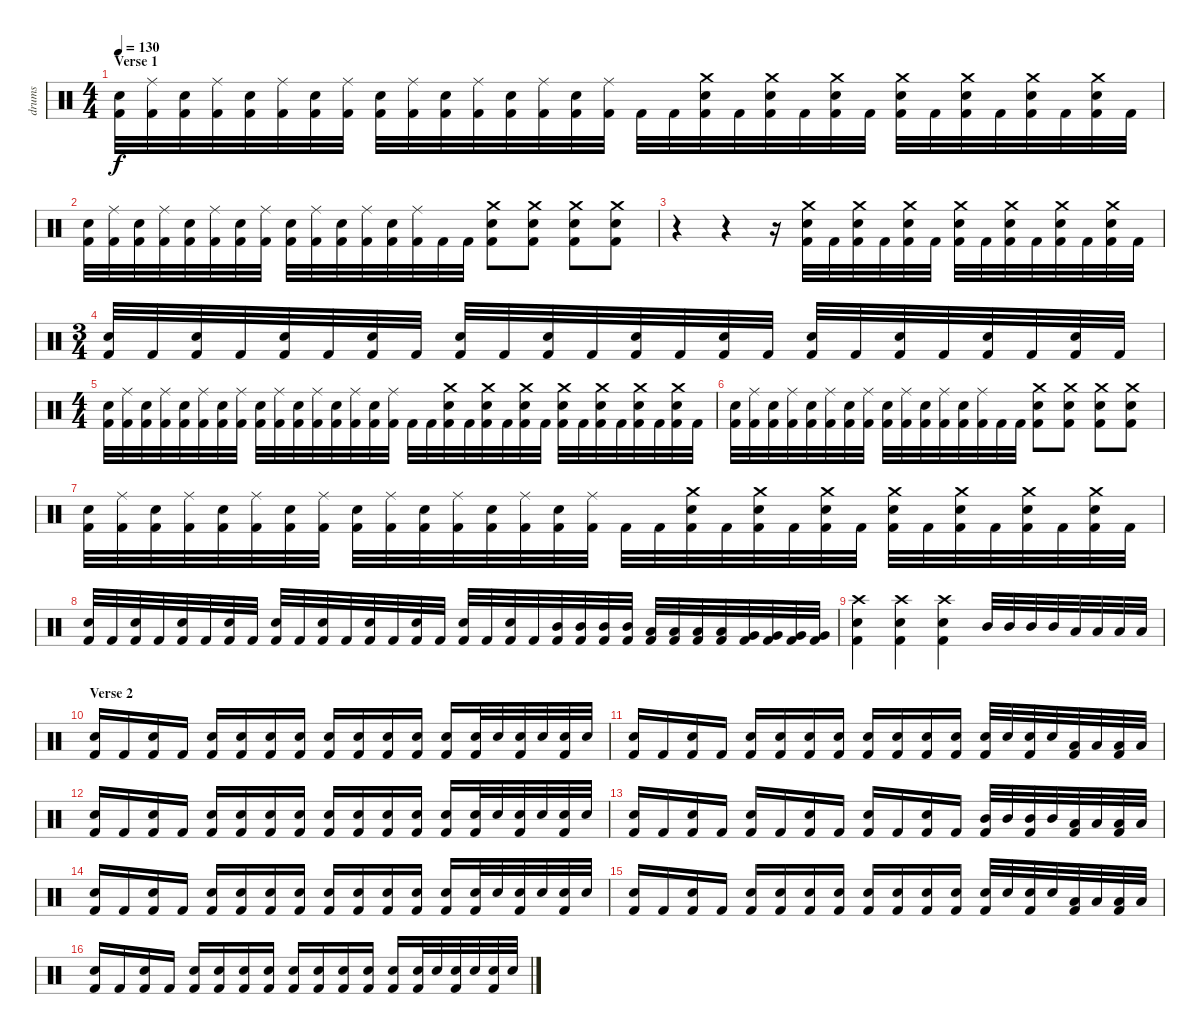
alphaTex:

\track ("drums" "drums") {instrument percussion}
\staff {score}
\articulation defaults
\ts (4 4)
\section ("" "Verse 1")
\tempo 130
\clef neutral
\ks c
("Electric Snare (hit)" "Kick (hit) 2").32{dy f} ("Ride (middle)" "Kick (hit) 2").32 ("Electric Snare (hit)" "Kick (hit) 2").32 ("Ride (middle)" "Kick (hit) 2").32 ("Electric Snare (hit)" "Kick (hit) 2").32 ("Ride (middle)" "Kick (hit) 2").32 ("Electric Snare (hit)" "Kick (hit) 2").32 ("Ride (middle)" "Kick (hit) 2").32 ("Electric Snare (hit)" "Kick (hit) 2").32 ("Ride (middle)" "Kick (hit) 2").32 ("Electric Snare (hit)" "Kick (hit) 2").32 ("Ride (middle)" "Kick (hit) 2").32 ("Electric Snare (hit)" "Kick (hit) 2").32 ("Ride (middle)" "Kick (hit) 2").32 ("Electric Snare (hit)" "Kick (hit) 2").32 ("Ride (middle)" "Kick (hit) 2").32 "Kick (hit) 2".32 "Kick (hit) 2".32 ("Crash medium (hit)" "Electric Snare (hit)" "Kick (hit) 2").32 "Kick (hit) 2".32 ("Crash medium (hit)" "Electric Snare (hit)" "Kick (hit) 2").32 "Kick (hit) 2".32 ("Crash medium (hit)" "Electric Snare (hit)" "Kick (hit) 2").32 "Kick (hit) 2".32 ("Crash medium (hit)" "Electric Snare (hit)" "Kick (hit) 2").32 "Kick (hit) 2".32 ("Crash medium (hit)" "Electric Snare (hit)" "Kick (hit) 2").32 "Kick (hit) 2".32 ("Crash medium (hit)" "Electric Snare (hit)" "Kick (hit) 2").32 "Kick (hit) 2".32 ("Crash medium (hit)" "Electric Snare (hit)" "Kick (hit) 2").32 "Kick (hit) 2".32 |
("Electric Snare (hit)" "Kick (hit) 2").32 ("Ride (middle)" "Kick (hit) 2").32 ("Electric Snare (hit)" "Kick (hit) 2").32 ("Ride (middle)" "Kick (hit) 2").32 ("Electric Snare (hit)" "Kick (hit) 2").32 ("Ride (middle)" "Kick (hit) 2").32 ("Electric Snare (hit)" "Kick (hit) 2").32 ("Ride (middle)" "Kick (hit) 2").32 ("Electric Snare (hit)" "Kick (hit) 2").32 ("Ride (middle)" "Kick (hit) 2").32 ("Electric Snare (hit)" "Kick (hit) 2").32 ("Ride (middle)" "Kick (hit) 2").32 ("Electric Snare (hit)" "Kick (hit) 2").32 ("Ride (middle)" "Kick (hit) 2").32 "Kick (hit) 2".32 "Kick (hit) 2".32 ("Crash medium (hit)" "Electric Snare (hit)" "Kick (hit) 2").8 ("Crash medium (hit)" "Electric Snare (hit)" "Kick (hit) 2").8 ("Crash medium (hit)" "Electric Snare (hit)" "Kick (hit) 2").8 ("Crash medium (hit)" "Electric Snare (hit)" "Kick (hit) 2").8 |
r.4 r.4 r.16 ("Crash medium (hit)" "Electric Snare (hit)" "Kick (hit) 2").32 "Kick (hit) 2".32 ("Crash medium (hit)" "Electric Snare (hit)" "Kick (hit) 2").32 "Kick (hit) 2".32 ("Crash medium (hit)" "Electric Snare (hit)" "Kick (hit) 2").32 "Kick (hit) 2".32 ("Crash medium (hit)" "Electric Snare (hit)" "Kick (hit) 2").32 "Kick (hit) 2".32 ("Crash medium (hit)" "Electric Snare (hit)" "Kick (hit) 2").32 "Kick (hit) 2".32 ("Crash medium (hit)" "Electric Snare (hit)" "Kick (hit) 2").32 "Kick (hit) 2".32 ("Crash medium (hit)" "Electric Snare (hit)" "Kick (hit) 2").32 "Kick (hit) 2".32 |
\ts (3 4)
("Electric Snare (hit)" "Kick (hit) 2").32 "Kick (hit) 2".32 ("Electric Snare (hit)" "Kick (hit) 2").32 "Kick (hit) 2".32 ("Electric Snare (hit)" "Kick (hit) 2").32 "Kick (hit) 2".32 ("Electric Snare (hit)" "Kick (hit) 2").32 "Kick (hit) 2".32 ("Electric Snare (hit)" "Kick (hit) 2").32 "Kick (hit) 2".32 ("Electric Snare (hit)" "Kick (hit) 2").32 "Kick (hit) 2".32 ("Electric Snare (hit)" "Kick (hit) 2").32 "Kick (hit) 2".32 ("Electric Snare (hit)" "Kick (hit) 2").32 "Kick (hit) 2".32 ("Electric Snare (hit)" "Kick (hit) 2").32 "Kick (hit) 2".32 ("Electric Snare (hit)" "Kick (hit) 2").32 "Kick (hit) 2".32 ("Electric Snare (hit)" "Kick (hit) 2").32 "Kick (hit) 2".32 ("Electric Snare (hit)" "Kick (hit) 2").32 "Kick (hit) 2".32 |
\ts (4 4)
("Electric Snare (hit)" "Kick (hit) 2").32 ("Ride (middle)" "Kick (hit) 2").32 ("Electric Snare (hit)" "Kick (hit) 2").32 ("Ride (middle)" "Kick (hit) 2").32 ("Electric Snare (hit)" "Kick (hit) 2").32 ("Ride (middle)" "Kick (hit) 2").32 ("Electric Snare (hit)" "Kick (hit) 2").32 ("Ride (middle)" "Kick (hit) 2").32 ("Electric Snare (hit)" "Kick (hit) 2").32 ("Ride (middle)" "Kick (hit) 2").32 ("Electric Snare (hit)" "Kick (hit) 2").32 ("Ride (middle)" "Kick (hit) 2").32 ("Electric Snare (hit)" "Kick (hit) 2").32 ("Ride (middle)" "Kick (hit) 2").32 ("Electric Snare (hit)" "Kick (hit) 2").32 ("Ride (middle)" "Kick (hit) 2").32 "Kick (hit) 2".32 "Kick (hit) 2".32 ("Crash medium (hit)" "Electric Snare (hit)" "Kick (hit) 2").32 "Kick (hit) 2".32 ("Crash medium (hit)" "Electric Snare (hit)" "Kick (hit) 2").32 "Kick (hit) 2".32 ("Crash medium (hit)" "Electric Snare (hit)" "Kick (hit) 2").32 "Kick (hit) 2".32 ("Crash medium (hit)" "Electric Snare (hit)" "Kick (hit) 2").32 "Kick (hit) 2".32 ("Crash medium (hit)" "Electric Snare (hit)" "Kick (hit) 2").32 "Kick (hit) 2".32 ("Crash medium (hit)" "Electric Snare (hit)" "Kick (hit) 2").32 "Kick (hit) 2".32 ("Crash medium (hit)" "Electric Snare (hit)" "Kick (hit) 2").32 "Kick (hit) 2".32 |
("Electric Snare (hit)" "Kick (hit) 2").32 ("Ride (middle)" "Kick (hit) 2").32 ("Electric Snare (hit)" "Kick (hit) 2").32 ("Ride (middle)" "Kick (hit) 2").32 ("Electric Snare (hit)" "Kick (hit) 2").32 ("Ride (middle)" "Kick (hit) 2").32 ("Electric Snare (hit)" "Kick (hit) 2").32 ("Ride (middle)" "Kick (hit) 2").32 ("Electric Snare (hit)" "Kick (hit) 2").32 ("Ride (middle)" "Kick (hit) 2").32 ("Electric Snare (hit)" "Kick (hit) 2").32 ("Ride (middle)" "Kick (hit) 2").32 ("Electric Snare (hit)" "Kick (hit) 2").32 ("Ride (middle)" "Kick (hit) 2").32 "Kick (hit) 2".32 "Kick (hit) 2".32 ("Crash medium (hit)" "Electric Snare (hit)" "Kick (hit) 2").8 ("Crash medium (hit)" "Electric Snare (hit)" "Kick (hit) 2").8 ("Crash medium (hit)" "Electric Snare (hit)" "Kick (hit) 2").8 ("Crash medium (hit)" "Electric Snare (hit)" "Kick (hit) 2").8 |
("Electric Snare (hit)" "Kick (hit) 2").32 ("Ride (middle)" "Kick (hit) 2").32 ("Electric Snare (hit)" "Kick (hit) 2").32 ("Ride (middle)" "Kick (hit) 2").32 ("Electric Snare (hit)" "Kick (hit) 2").32 ("Ride (middle)" "Kick (hit) 2").32 ("Electric Snare (hit)" "Kick (hit) 2").32 ("Ride (middle)" "Kick (hit) 2").32 ("Electric Snare (hit)" "Kick (hit) 2").32 ("Ride (middle)" "Kick (hit) 2").32 ("Electric Snare (hit)" "Kick (hit) 2").32 ("Ride (middle)" "Kick (hit) 2").32 ("Electric Snare (hit)" "Kick (hit) 2").32 ("Ride (middle)" "Kick (hit) 2").32 ("Electric Snare (hit)" "Kick (hit) 2").32 ("Ride (middle)" "Kick (hit) 2").32 "Kick (hit) 2".32 "Kick (hit) 2".32 ("Crash medium (hit)" "Electric Snare (hit)" "Kick (hit) 2").32 "Kick (hit) 2".32 ("Crash medium (hit)" "Electric Snare (hit)" "Kick (hit) 2").32 "Kick (hit) 2".32 ("Crash medium (hit)" "Electric Snare (hit)" "Kick (hit) 2").32 "Kick (hit) 2".32 ("Crash medium (hit)" "Electric Snare (hit)" "Kick (hit) 2").32 "Kick (hit) 2".32 ("Crash medium (hit)" "Electric Snare (hit)" "Kick (hit) 2").32 "Kick (hit) 2".32 ("Crash medium (hit)" "Electric Snare (hit)" "Kick (hit) 2").32 "Kick (hit) 2".32 ("Crash medium (hit)" "Electric Snare (hit)" "Kick (hit) 2").32 "Kick (hit) 2".32 |
("Electric Snare (hit)" "Kick (hit) 2").32 "Kick (hit) 2".32 ("Electric Snare (hit)" "Kick (hit) 2").32 "Kick (hit) 2".32 ("Electric Snare (hit)" "Kick (hit) 2").32 "Kick (hit) 2".32 ("Electric Snare (hit)" "Kick (hit) 2").32 "Kick (hit) 2".32 ("Electric Snare (hit)" "Kick (hit) 2").32 "Kick (hit) 2".32 ("Electric Snare (hit)" "Kick (hit) 2").32 "Kick (hit) 2".32 ("Electric Snare (hit)" "Kick (hit) 2").32 "Kick (hit) 2".32 ("Electric Snare (hit)" "Kick (hit) 2").32 "Kick (hit) 2".32 ("Electric Snare (hit)" "Kick (hit) 2").32 "Kick (hit) 2".32 ("Electric Snare (hit)" "Kick (hit) 2").32 "Kick (hit) 2".32 ("Mid Tom (hit)" "Kick (hit) 2").32 ("Mid Tom (hit)" "Kick (hit) 2").32 ("Mid Tom (hit)" "Kick (hit) 2").32 ("Mid Tom (hit)" "Kick (hit) 2").32 ("Low Tom (hit)" "Kick (hit) 2").32 ("Low Tom (hit)" "Kick (hit) 2").32 ("Low Tom (hit)" "Kick (hit) 2").32 ("Low Tom (hit)" "Kick (hit) 2").32 ("Very Low Tom (hit)" "Kick (hit) 2").32 ("Very Low Tom (hit)" "Kick (hit) 2").32 ("Very Low Tom (hit)" "Kick (hit) 2").32 ("Very Low Tom (hit)" "Kick (hit) 2").32 |
("Crash high (hit)" "Electric Snare (hit)" "Kick (hit) 2").4 ("Crash high (hit)" "Electric Snare (hit)" "Kick (hit) 2").4 ("Crash high (hit)" "Electric Snare (hit)" "Kick (hit) 2").4 "Mid Tom (hit)".32 "Mid Tom (hit)".32 "Mid Tom (hit)".32 "Mid Tom (hit)".32 "Low Tom (hit)".32 "Low Tom (hit)".32 "Low Tom (hit)".32 "Low Tom (hit)".32 |
\section ("" "Verse 2")
("Electric Snare (hit)" "Kick (hit) 2").16 "Kick (hit) 2".16 ("Electric Snare (hit)" "Kick (hit) 2").16 "Kick (hit) 2".16 ("Electric Snare (hit)" "Kick (hit) 2").16 ("Electric Snare (hit)" "Kick (hit) 2").16 ("Electric Snare (hit)" "Kick (hit) 2").16 ("Electric Snare (hit)" "Kick (hit) 2").16 ("Electric Snare (hit)" "Kick (hit) 2").16 ("Electric Snare (hit)" "Kick (hit) 2").16 ("Electric Snare (hit)" "Kick (hit) 2").16 ("Electric Snare (hit)" "Kick (hit) 2").16 ("Electric Snare (hit)" "Kick (hit) 2").16 ("Electric Snare (hit)" "Kick (hit) 2").32 "Electric Snare (hit)".32 ("Electric Snare (hit)" "Kick (hit) 2").32 "Electric Snare (hit)".32 ("Electric Snare (hit)" "Kick (hit) 2").32 "Electric Snare (hit)".32 |
("Electric Snare (hit)" "Kick (hit) 2").16 "Kick (hit) 2".16 ("Electric Snare (hit)" "Kick (hit) 2").16 "Kick (hit) 2".16 ("Electric Snare (hit)" "Kick (hit) 2").16 ("Electric Snare (hit)" "Kick (hit) 2").16 ("Electric Snare (hit)" "Kick (hit) 2").16 ("Electric Snare (hit)" "Kick (hit) 2").16 ("Electric Snare (hit)" "Kick (hit) 2").16 ("Electric Snare (hit)" "Kick (hit) 2").16 ("Electric Snare (hit)" "Kick (hit) 2").16 ("Electric Snare (hit)" "Kick (hit) 2").16 ("Electric Snare (hit)" "Kick (hit) 2").32 "Electric Snare (hit)".32 ("Electric Snare (hit)" "Kick (hit) 2").32 "Electric Snare (hit)".32 ("Low Tom (hit)" "Kick (hit) 2").32 "Low Tom (hit)".32 ("Low Tom (hit)" "Kick (hit) 2").32 "Low Tom (hit)".32 |
("Electric Snare (hit)" "Kick (hit) 2").16 "Kick (hit) 2".16 ("Electric Snare (hit)" "Kick (hit) 2").16 "Kick (hit) 2".16 ("Electric Snare (hit)" "Kick (hit) 2").16 ("Electric Snare (hit)" "Kick (hit) 2").16 ("Electric Snare (hit)" "Kick (hit) 2").16 ("Electric Snare (hit)" "Kick (hit) 2").16 ("Electric Snare (hit)" "Kick (hit) 2").16 ("Electric Snare (hit)" "Kick (hit) 2").16 ("Electric Snare (hit)" "Kick (hit) 2").16 ("Electric Snare (hit)" "Kick (hit) 2").16 ("Electric Snare (hit)" "Kick (hit) 2").16 ("Electric Snare (hit)" "Kick (hit) 2").32 "Electric Snare (hit)".32 ("Electric Snare (hit)" "Kick (hit) 2").32 "Electric Snare (hit)".32 ("Electric Snare (hit)" "Kick (hit) 2").32 "Electric Snare (hit)".32 |
("Electric Snare (hit)" "Kick (hit) 2").16 "Kick (hit) 2".16 ("Electric Snare (hit)" "Kick (hit) 2").16 "Kick (hit) 2".16 ("Electric Snare (hit)" "Kick (hit) 2").16 "Kick (hit) 2".16 ("Electric Snare (hit)" "Kick (hit) 2").16 "Kick (hit) 2".16 ("Electric Snare (hit)" "Kick (hit) 2").16 "Kick (hit) 2".16 ("Electric Snare (hit)" "Kick (hit) 2").16 "Kick (hit) 2".16 ("Mid Tom (hit)" "Kick (hit) 2").32 "Mid Tom (hit)".32 ("Mid Tom (hit)" "Kick (hit) 2").32 "Mid Tom (hit)".32 ("Low Tom (hit)" "Kick (hit) 2").32 "Low Tom (hit)".32 ("Low Tom (hit)" "Kick (hit) 2").32 "Low Tom (hit)".32 |
("Electric Snare (hit)" "Kick (hit) 2").16 "Kick (hit) 2".16 ("Electric Snare (hit)" "Kick (hit) 2").16 "Kick (hit) 2".16 ("Electric Snare (hit)" "Kick (hit) 2").16 ("Electric Snare (hit)" "Kick (hit) 2").16 ("Electric Snare (hit)" "Kick (hit) 2").16 ("Electric Snare (hit)" "Kick (hit) 2").16 ("Electric Snare (hit)" "Kick (hit) 2").16 ("Electric Snare (hit)" "Kick (hit) 2").16 ("Electric Snare (hit)" "Kick (hit) 2").16 ("Electric Snare (hit)" "Kick (hit) 2").16 ("Electric Snare (hit)" "Kick (hit) 2").16 ("Electric Snare (hit)" "Kick (hit) 2").32 "Electric Snare (hit)".32 ("Electric Snare (hit)" "Kick (hit) 2").32 "Electric Snare (hit)".32 ("Electric Snare (hit)" "Kick (hit) 2").32 "Electric Snare (hit)".32 |
("Electric Snare (hit)" "Kick (hit) 2").16 "Kick (hit) 2".16 ("Electric Snare (hit)" "Kick (hit) 2").16 "Kick (hit) 2".16 ("Electric Snare (hit)" "Kick (hit) 2").16 ("Electric Snare (hit)" "Kick (hit) 2").16 ("Electric Snare (hit)" "Kick (hit) 2").16 ("Electric Snare (hit)" "Kick (hit) 2").16 ("Electric Snare (hit)" "Kick (hit) 2").16 ("Electric Snare (hit)" "Kick (hit) 2").16 ("Electric Snare (hit)" "Kick (hit) 2").16 ("Electric Snare (hit)" "Kick (hit) 2").16 ("Electric Snare (hit)" "Kick (hit) 2").32 "Electric Snare (hit)".32 ("Electric Snare (hit)" "Kick (hit) 2").32 "Electric Snare (hit)".32 ("Low Tom (hit)" "Kick (hit) 2").32 "Low Tom (hit)".32 ("Low Tom (hit)" "Kick (hit) 2").32 "Low Tom (hit)".32 |
("Electric Snare (hit)" "Kick (hit) 2").16 "Kick (hit) 2".16 ("Electric Snare (hit)" "Kick (hit) 2").16 "Kick (hit) 2".16 ("Electric Snare (hit)" "Kick (hit) 2").16 ("Electric Snare (hit)" "Kick (hit) 2").16 ("Electric Snare (hit)" "Kick (hit) 2").16 ("Electric Snare (hit)" "Kick (hit) 2").16 ("Electric Snare (hit)" "Kick (hit) 2").16 ("Electric Snare (hit)" "Kick (hit) 2").16 ("Electric Snare (hit)" "Kick (hit) 2").16 ("Electric Snare (hit)" "Kick (hit) 2").16 ("Electric Snare (hit)" "Kick (hit) 2").16 ("Electric Snare (hit)" "Kick (hit) 2").32 "Electric Snare (hit)".32 ("Electric Snare (hit)" "Kick (hit) 2").32 "Electric Snare (hit)".32 ("Electric Snare (hit)" "Kick (hit) 2").32 "Electric Snare (hit)".32
